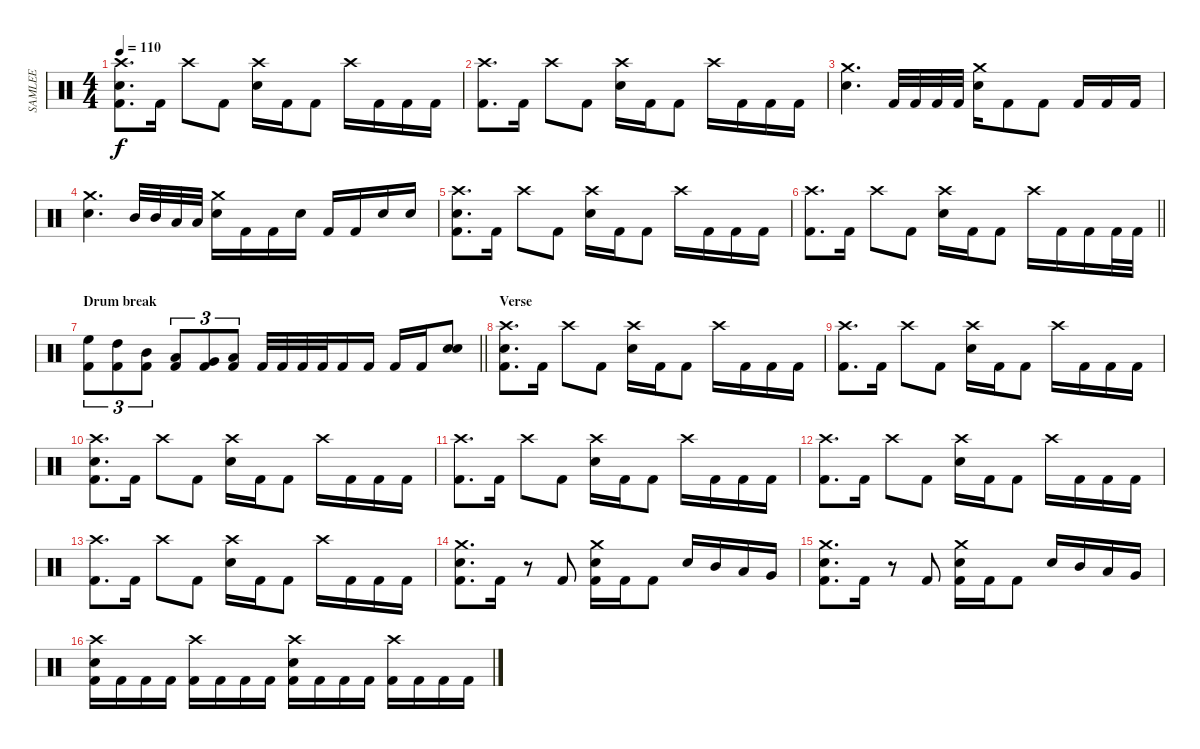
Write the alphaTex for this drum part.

\track ("SAMLEE" "SAMLEE") {instrument percussion}
\staff {score}
\articulation defaults
\ts (4 4)
\tempo 110
\clef neutral
\ks c
("Crash high (hit)" "Snare (hit) 2" "Kick (hit) 2").8{d dy f} "Kick (hit) 2".16 "Crash high (hit)".8 "Kick (hit) 2".8 ("Crash high (hit)" "Snare (hit) 2").16 "Kick (hit) 2".16 "Kick (hit) 2".8 "Crash high (hit)".16 "Kick (hit) 2".16 "Kick (hit) 2".16 "Kick (hit) 2".16 |
("Crash high (hit)" "Kick (hit) 2").8{d} "Kick (hit) 2".16 "Crash high (hit)".8 "Kick (hit) 2".8 ("Crash high (hit)" "Snare (hit) 2").16 "Kick (hit) 2".16 "Kick (hit) 2".8 "Crash high (hit)".16 "Kick (hit) 2".16 "Kick (hit) 2".16 "Kick (hit) 2".16 |
("Crash medium (hit)" "Snare (hit) 2").4{d} "Kick (hit) 2".32 "Kick (hit) 2".32 "Kick (hit) 2".32 "Kick (hit) 2".32 ("Crash medium (hit)" "Snare (hit) 2").16 "Kick (hit) 2".8 "Kick (hit) 2".8 "Kick (hit) 2".16 "Kick (hit) 2".16 "Kick (hit) 2".16 |
("Crash medium (hit)" "Snare (hit) 2").4{d} "Mid Tom (hit)".32 "Mid Tom (hit)".32 "Low Tom (hit)".32 "Low Tom (hit)".32 ("Crash medium (hit)" "Snare (hit) 2").16 "Kick (hit) 2".16 "Kick (hit) 2".16 "Snare (hit) 2".16 "Kick (hit) 2".16 "Kick (hit) 2".16 "Snare (hit) 2".16 "Snare (hit) 2".16 |
("Crash high (hit)" "Snare (hit) 2" "Kick (hit) 2").8{d} "Kick (hit) 2".16 "Crash high (hit)".8 "Kick (hit) 2".8 ("Crash high (hit)" "Snare (hit) 2").16 "Kick (hit) 2".16 "Kick (hit) 2".8 "Crash high (hit)".16 "Kick (hit) 2".16 "Kick (hit) 2".16 "Kick (hit) 2".16 |
\barLineRight lightlight
("Crash high (hit)" "Kick (hit) 2").8{d} "Kick (hit) 2".16 "Crash high (hit)".8 "Kick (hit) 2".8 ("Crash high (hit)" "Snare (hit) 2").16 "Kick (hit) 2".16 "Kick (hit) 2".8 "Crash high (hit)".16 "Kick (hit) 2".16 "Kick (hit) 2".16 "Kick (hit) 2".32 "Kick (hit) 2".32 |
\section ("" "Drum break")
\barLineRight lightlight
("High Floor Tom (hit)" "Kick (hit) 2").8{tu (3 2)} ("High Tom (hit)" "Kick (hit) 2").8{tu (3 2)} ("Mid Tom (hit)" "Kick (hit) 2").8{tu (3 2)} ("Low Tom (hit)" "Kick (hit) 2").8{tu (3 2)} ("Very Low Tom (hit)" "Kick (hit) 2").8{tu (3 2)} ("Low Floor Tom (hit)" "Kick (hit) 2").8{tu (3 2)} "Kick (hit) 2".32 "Kick (hit) 2".32 "Kick (hit) 2".32 "Kick (hit) 2".32 "Kick (hit) 2".16 "Kick (hit) 2".16 "Kick (hit) 2".16 "Kick (hit) 2".16 ("Snare (hit) 2" "Snare (hit) 2").8 |
\section ("" "Verse")
("Crash high (hit)" "Snare (hit) 2" "Kick (hit) 2").8{d} "Kick (hit) 2".16 "Crash high (hit)".8 "Kick (hit) 2".8 ("Crash high (hit)" "Snare (hit) 2").16 "Kick (hit) 2".16 "Kick (hit) 2".8 "Crash high (hit)".16 "Kick (hit) 2".16 "Kick (hit) 2".16 "Kick (hit) 2".16 |
("Crash high (hit)" "Kick (hit) 2").8{d} "Kick (hit) 2".16 "Crash high (hit)".8 "Kick (hit) 2".8 ("Crash high (hit)" "Snare (hit) 2").16 "Kick (hit) 2".16 "Kick (hit) 2".8 "Crash high (hit)".16 "Kick (hit) 2".16 "Kick (hit) 2".16 "Kick (hit) 2".16 |
("Crash high (hit)" "Snare (hit) 2" "Kick (hit) 2").8{d} "Kick (hit) 2".16 "Crash high (hit)".8 "Kick (hit) 2".8 ("Crash high (hit)" "Snare (hit) 2").16 "Kick (hit) 2".16 "Kick (hit) 2".8 "Crash high (hit)".16 "Kick (hit) 2".16 "Kick (hit) 2".16 "Kick (hit) 2".16 |
("Crash high (hit)" "Kick (hit) 2").8{d} "Kick (hit) 2".16 "Crash high (hit)".8 "Kick (hit) 2".8 ("Crash high (hit)" "Snare (hit) 2").16 "Kick (hit) 2".16 "Kick (hit) 2".8 "Crash high (hit)".16 "Kick (hit) 2".16 "Kick (hit) 2".16 "Kick (hit) 2".16 |
("Crash high (hit)" "Kick (hit) 2").8{d} "Kick (hit) 2".16 "Crash high (hit)".8 "Kick (hit) 2".8 ("Crash high (hit)" "Snare (hit) 2").16 "Kick (hit) 2".16 "Kick (hit) 2".8 "Crash high (hit)".16 "Kick (hit) 2".16 "Kick (hit) 2".16 "Kick (hit) 2".16 |
("Crash high (hit)" "Kick (hit) 2").8{d} "Kick (hit) 2".16 "Crash high (hit)".8 "Kick (hit) 2".8 ("Crash high (hit)" "Snare (hit) 2").16 "Kick (hit) 2".16 "Kick (hit) 2".8 "Crash high (hit)".16 "Kick (hit) 2".16 "Kick (hit) 2".16 "Kick (hit) 2".16 |
("Crash medium (hit)" "Snare (hit) 2" "Kick (hit) 2").8{d} "Kick (hit) 2".16 r.8 "Kick (hit) 2".8 ("Crash medium (hit)" "Snare (hit) 2" "Kick (hit) 2").16 "Kick (hit) 2".16 "Kick (hit) 2".8 "Snare (hit) 2".16 "Mid Tom (hit)".16 "Low Tom (hit)".16 "Very Low Tom (hit)".16 |
("Crash medium (hit)" "Snare (hit) 2" "Kick (hit) 2").8{d} "Kick (hit) 2".16 r.8 "Kick (hit) 2".8 ("Crash medium (hit)" "Snare (hit) 2" "Kick (hit) 2").16 "Kick (hit) 2".16 "Kick (hit) 2".8 "Snare (hit) 2".16 "Mid Tom (hit)".16 "Low Tom (hit)".16 "Very Low Tom (hit)".16 |
("Crash high (hit)" "Snare (hit) 2" "Kick (hit) 2").16 "Kick (hit) 2".16 "Kick (hit) 2".16 "Kick (hit) 2".16 ("Crash high (hit)" "Kick (hit) 2").16 "Kick (hit) 2".16 "Kick (hit) 2".16 "Kick (hit) 2".16 ("Crash high (hit)" "Snare (hit) 2" "Kick (hit) 2").16 "Kick (hit) 2".16 "Kick (hit) 2".16 "Kick (hit) 2".16 ("Crash high (hit)" "Kick (hit) 2").16 "Kick (hit) 2".16 "Kick (hit) 2".16 "Kick (hit) 2".16
